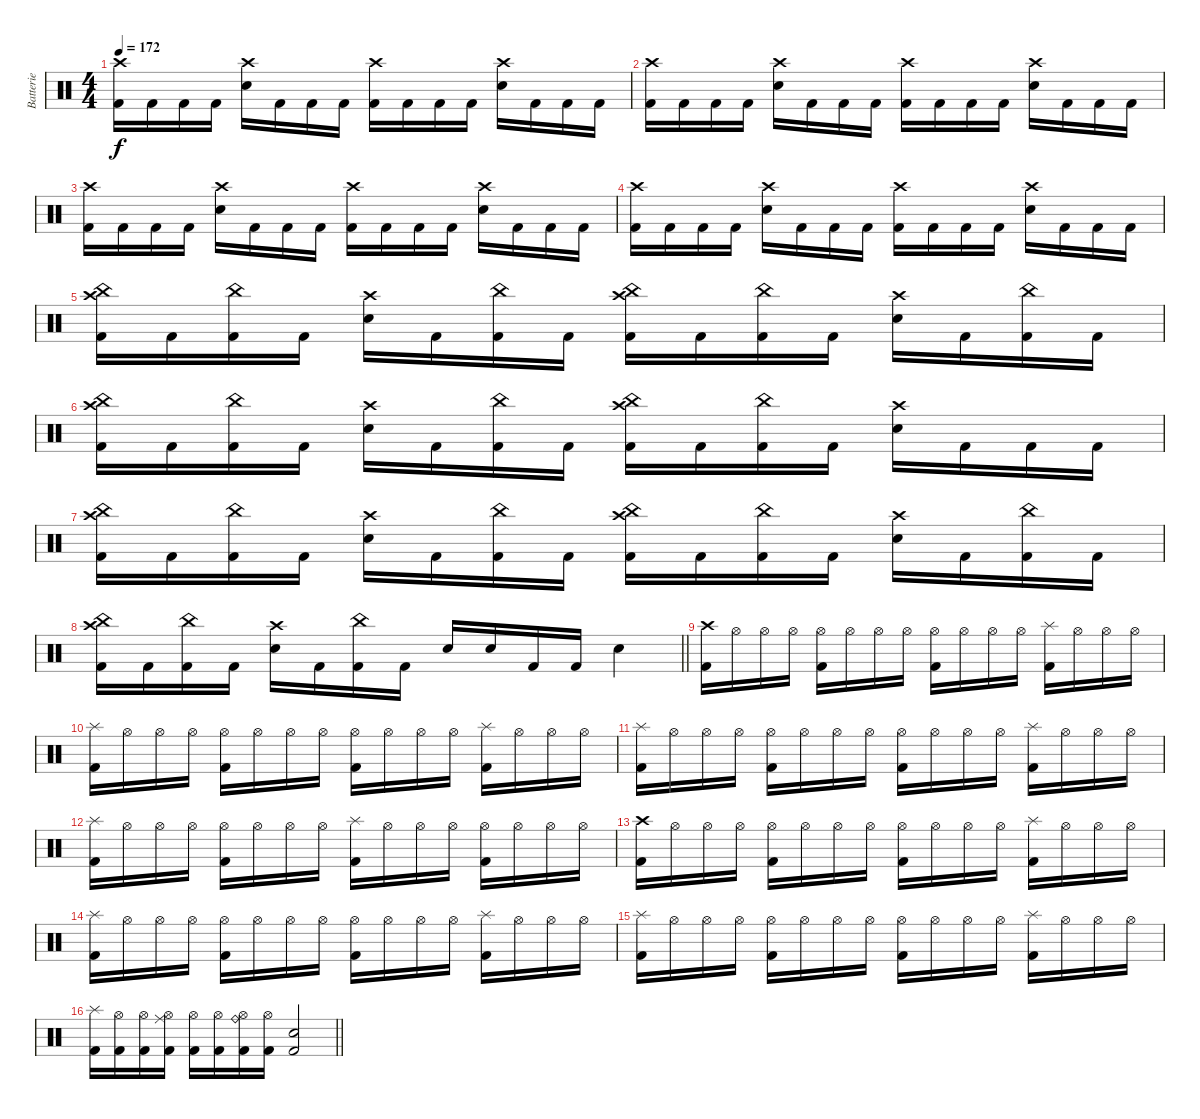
\track ("Batterie" "Batterie") {instrument percussion}
\staff {score}
\articulation defaults
\ts (4 4)
\tempo 172
\clef neutral
\ks c
("Crash high (hit)" "Kick (hit) 2").16{dy f} "Kick (hit) 2".16 "Kick (hit) 2".16 "Kick (hit) 2".16 ("Crash high (hit)" "Electric Snare (hit)").16 "Kick (hit) 2".16 "Kick (hit) 2".16 "Kick (hit) 2".16 ("Crash high (hit)" "Kick (hit) 2").16 "Kick (hit) 2".16 "Kick (hit) 2".16 "Kick (hit) 2".16 ("Crash high (hit)" "Electric Snare (hit)").16 "Kick (hit) 2".16 "Kick (hit) 2".16 "Kick (hit) 2".16 |
("Crash high (hit)" "Kick (hit) 2").16 "Kick (hit) 2".16 "Kick (hit) 2".16 "Kick (hit) 2".16 ("Crash high (hit)" "Electric Snare (hit)").16 "Kick (hit) 2".16 "Kick (hit) 2".16 "Kick (hit) 2".16 ("Crash high (hit)" "Kick (hit) 2").16 "Kick (hit) 2".16 "Kick (hit) 2".16 "Kick (hit) 2".16 ("Crash high (hit)" "Electric Snare (hit)").16 "Kick (hit) 2".16 "Kick (hit) 2".16 "Kick (hit) 2".16 |
("Crash high (hit)" "Kick (hit) 2").16 "Kick (hit) 2".16 "Kick (hit) 2".16 "Kick (hit) 2".16 ("Crash high (hit)" "Electric Snare (hit)").16 "Kick (hit) 2".16 "Kick (hit) 2".16 "Kick (hit) 2".16 ("Crash high (hit)" "Kick (hit) 2").16 "Kick (hit) 2".16 "Kick (hit) 2".16 "Kick (hit) 2".16 ("Crash high (hit)" "Electric Snare (hit)").16 "Kick (hit) 2".16 "Kick (hit) 2".16 "Kick (hit) 2".16 |
("Crash high (hit)" "Kick (hit) 2").16 "Kick (hit) 2".16 "Kick (hit) 2".16 "Kick (hit) 2".16 ("Crash high (hit)" "Electric Snare (hit)").16 "Kick (hit) 2".16 "Kick (hit) 2".16 "Kick (hit) 2".16 ("Crash high (hit)" "Kick (hit) 2").16 "Kick (hit) 2".16 "Kick (hit) 2".16 "Kick (hit) 2".16 ("Crash high (hit)" "Electric Snare (hit)").16 "Kick (hit) 2".16 "Kick (hit) 2".16 "Kick (hit) 2".16 |
("Crash high (hit)" "China (hit)" "Kick (hit) 2").16 "Kick (hit) 2".16 ("China (hit)" "Kick (hit) 2").16 "Kick (hit) 2".16 ("Crash high (hit)" "Electric Snare (hit)").16 "Kick (hit) 2".16 ("China (hit)" "Kick (hit) 2").16 "Kick (hit) 2".16 ("Crash high (hit)" "China (hit)" "Kick (hit) 2").16 "Kick (hit) 2".16 ("China (hit)" "Kick (hit) 2").16 "Kick (hit) 2".16 ("Crash high (hit)" "Electric Snare (hit)").16 "Kick (hit) 2".16 ("China (hit)" "Kick (hit) 2").16 "Kick (hit) 2".16 |
("Crash high (hit)" "China (hit)" "Kick (hit) 2").16 "Kick (hit) 2".16 ("China (hit)" "Kick (hit) 2").16 "Kick (hit) 2".16 ("Crash high (hit)" "Electric Snare (hit)").16 "Kick (hit) 2".16 ("China (hit)" "Kick (hit) 2").16 "Kick (hit) 2".16 ("Crash high (hit)" "China (hit)" "Kick (hit) 2").16 "Kick (hit) 2".16 ("China (hit)" "Kick (hit) 2").16 "Kick (hit) 2".16 ("Crash high (hit)" "Electric Snare (hit)").16 "Kick (hit) 2".16 "Kick (hit) 2".16 "Kick (hit) 2".16 |
("Crash high (hit)" "China (hit)" "Kick (hit) 2").16 "Kick (hit) 2".16 ("China (hit)" "Kick (hit) 2").16 "Kick (hit) 2".16 ("Crash high (hit)" "Electric Snare (hit)").16 "Kick (hit) 2".16 ("China (hit)" "Kick (hit) 2").16 "Kick (hit) 2".16 ("Crash high (hit)" "China (hit)" "Kick (hit) 2").16 "Kick (hit) 2".16 ("China (hit)" "Kick (hit) 2").16 "Kick (hit) 2".16 ("Crash high (hit)" "Electric Snare (hit)").16 "Kick (hit) 2".16 ("China (hit)" "Kick (hit) 2").16 "Kick (hit) 2".16 |
\barLineRight lightlight
("Crash high (hit)" "China (hit)" "Kick (hit) 2").16 "Kick (hit) 2".16 ("China (hit)" "Kick (hit) 2").16 "Kick (hit) 2".16 ("Crash high (hit)" "Electric Snare (hit)").16 "Kick (hit) 2".16 ("China (hit)" "Kick (hit) 2").16 "Kick (hit) 2".16 "Electric Snare (hit)".16 "Electric Snare (hit)".16 "Kick (hit) 2".16 "Kick (hit) 2".16 "Electric Snare (hit)".4 |
("Crash high (hit)" "Kick (hit) 2").16 "Hi-Hat (open)".16 "Hi-Hat (open)".16 "Hi-Hat (open)".16 ("Hi-Hat (open)" "Kick (hit) 2").16 "Hi-Hat (open)".16 "Hi-Hat (open)".16 "Hi-Hat (open)".16 ("Hi-Hat (open)" "Kick (hit) 2").16 "Hi-Hat (open)".16 "Hi-Hat (open)".16 "Hi-Hat (open)".16 ("Splash (hit)" "Kick (hit) 2").16 "Hi-Hat (open)".16 "Hi-Hat (open)".16 "Hi-Hat (open)".16 |
("Splash (hit)" "Kick (hit) 2").16 "Hi-Hat (open)".16 "Hi-Hat (open)".16 "Hi-Hat (open)".16 ("Hi-Hat (open)" "Kick (hit) 2").16 "Hi-Hat (open)".16 "Hi-Hat (open)".16 "Hi-Hat (open)".16 ("Hi-Hat (open)" "Kick (hit) 2").16 "Hi-Hat (open)".16 "Hi-Hat (open)".16 "Hi-Hat (open)".16 ("Splash (hit)" "Kick (hit) 2").16 "Hi-Hat (open)".16 "Hi-Hat (open)".16 "Hi-Hat (open)".16 |
("Splash (hit)" "Kick (hit) 2").16 "Hi-Hat (open)".16 "Hi-Hat (open)".16 "Hi-Hat (open)".16 ("Hi-Hat (open)" "Kick (hit) 2").16 "Hi-Hat (open)".16 "Hi-Hat (open)".16 "Hi-Hat (open)".16 ("Hi-Hat (open)" "Kick (hit) 2").16 "Hi-Hat (open)".16 "Hi-Hat (open)".16 "Hi-Hat (open)".16 ("Splash (hit)" "Kick (hit) 2").16 "Hi-Hat (open)".16 "Hi-Hat (open)".16 "Hi-Hat (open)".16 |
("Splash (hit)" "Kick (hit) 2").16 "Hi-Hat (open)".16 "Hi-Hat (open)".16 "Hi-Hat (open)".16 ("Hi-Hat (open)" "Kick (hit) 2").16 "Hi-Hat (open)".16 "Hi-Hat (open)".16 "Hi-Hat (open)".16 ("Splash (hit)" "Kick (hit) 2").16 "Hi-Hat (open)".16 "Hi-Hat (open)".16 "Hi-Hat (open)".16 ("Hi-Hat (open)" "Kick (hit) 2").16 "Hi-Hat (open)".16 "Hi-Hat (open)".16 "Hi-Hat (open)".16 |
("Crash high (hit)" "Kick (hit) 2").16 "Hi-Hat (open)".16 "Hi-Hat (open)".16 "Hi-Hat (open)".16 ("Hi-Hat (open)" "Kick (hit) 2").16 "Hi-Hat (open)".16 "Hi-Hat (open)".16 "Hi-Hat (open)".16 ("Hi-Hat (open)" "Kick (hit) 2").16 "Hi-Hat (open)".16 "Hi-Hat (open)".16 "Hi-Hat (open)".16 ("Splash (hit)" "Kick (hit) 2").16 "Hi-Hat (open)".16 "Hi-Hat (open)".16 "Hi-Hat (open)".16 |
("Splash (hit)" "Kick (hit) 2").16 "Hi-Hat (open)".16 "Hi-Hat (open)".16 "Hi-Hat (open)".16 ("Hi-Hat (open)" "Kick (hit) 2").16 "Hi-Hat (open)".16 "Hi-Hat (open)".16 "Hi-Hat (open)".16 ("Hi-Hat (open)" "Kick (hit) 2").16 "Hi-Hat (open)".16 "Hi-Hat (open)".16 "Hi-Hat (open)".16 ("Splash (hit)" "Kick (hit) 2").16 "Hi-Hat (open)".16 "Hi-Hat (open)".16 "Hi-Hat (open)".16 |
("Splash (hit)" "Kick (hit) 2").16 "Hi-Hat (open)".16 "Hi-Hat (open)".16 "Hi-Hat (open)".16 ("Hi-Hat (open)" "Kick (hit) 2").16 "Hi-Hat (open)".16 "Hi-Hat (open)".16 "Hi-Hat (open)".16 ("Hi-Hat (open)" "Kick (hit) 2").16 "Hi-Hat (open)".16 "Hi-Hat (open)".16 "Hi-Hat (open)".16 ("Splash (hit)" "Kick (hit) 2").16 "Hi-Hat (open)".16 "Hi-Hat (open)".16 "Hi-Hat (open)".16 |
\barLineRight lightlight
("Splash (hit)" "Kick (hit) 2").16 ("Hi-Hat (open)" "Kick (hit) 2").16 ("Hi-Hat (open)" "Kick (hit) 2").16 ("Ride (middle)" "Hi-Hat (open)" "Kick (hit) 2").16 ("Hi-Hat (open)" "Kick (hit) 2").16 ("Hi-Hat (open)" "Kick (hit) 2").16 ("Ride (bell)" "Hi-Hat (open)" "Kick (hit) 2").16 ("Hi-Hat (open)" "Kick (hit) 2").16 ("Electric Snare (hit)" "Kick (hit) 2").2
